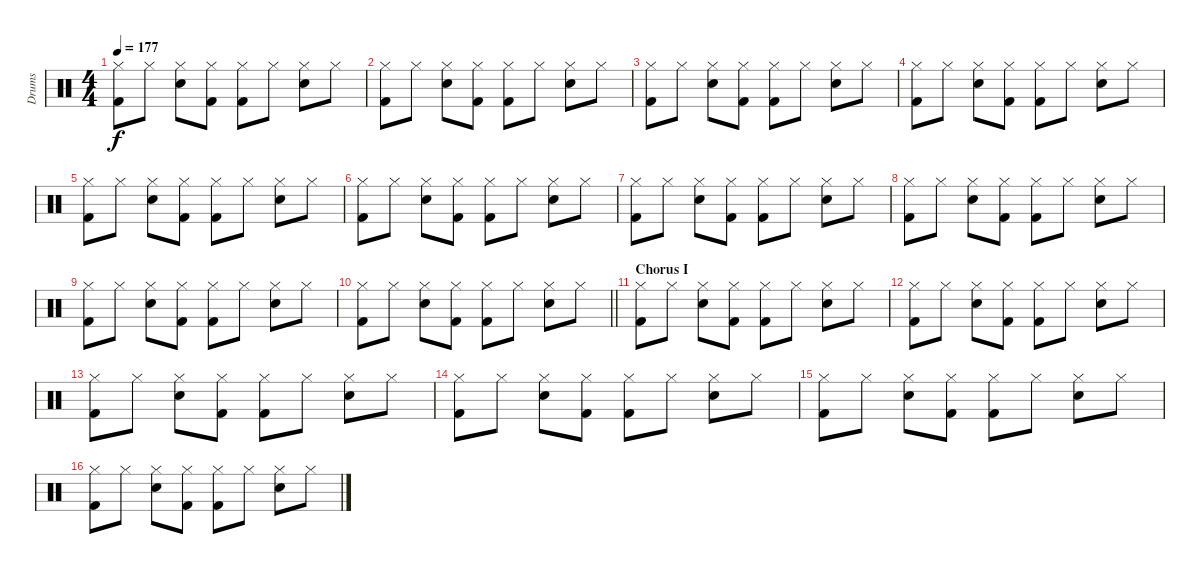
\track ("Drums" "Drums") {instrument percussion}
\staff {score}
\articulation defaults
\ts (4 4)
\tempo 177
\clef neutral
\ks c
("Hi-Hat (closed)" "Kick (hit) 2").8{dy f} "Hi-Hat (closed)".8 ("Hi-Hat (closed)" "Snare (hit) 2").8 ("Hi-Hat (closed)" "Kick (hit) 2").8 ("Hi-Hat (closed)" "Kick (hit) 2").8 "Hi-Hat (closed)".8 ("Hi-Hat (closed)" "Snare (hit) 2").8 "Hi-Hat (closed)".8 |
("Hi-Hat (closed)" "Kick (hit) 2").8 "Hi-Hat (closed)".8 ("Hi-Hat (closed)" "Snare (hit) 2").8 ("Hi-Hat (closed)" "Kick (hit) 2").8 ("Hi-Hat (closed)" "Kick (hit) 2").8 "Hi-Hat (closed)".8 ("Hi-Hat (closed)" "Snare (hit) 2").8 "Hi-Hat (closed)".8 |
("Hi-Hat (closed)" "Kick (hit) 2").8 "Hi-Hat (closed)".8 ("Hi-Hat (closed)" "Snare (hit) 2").8 ("Hi-Hat (closed)" "Kick (hit) 2").8 ("Hi-Hat (closed)" "Kick (hit) 2").8 "Hi-Hat (closed)".8 ("Hi-Hat (closed)" "Snare (hit) 2").8 "Hi-Hat (closed)".8 |
("Hi-Hat (closed)" "Kick (hit) 2").8 "Hi-Hat (closed)".8 ("Hi-Hat (closed)" "Snare (hit) 2").8 ("Hi-Hat (closed)" "Kick (hit) 2").8 ("Hi-Hat (closed)" "Kick (hit) 2").8 "Hi-Hat (closed)".8 ("Hi-Hat (closed)" "Snare (hit) 2").8 "Hi-Hat (closed)".8 |
("Hi-Hat (closed)" "Kick (hit) 2").8 "Hi-Hat (closed)".8 ("Hi-Hat (closed)" "Snare (hit) 2").8 ("Hi-Hat (closed)" "Kick (hit) 2").8 ("Hi-Hat (closed)" "Kick (hit) 2").8 "Hi-Hat (closed)".8 ("Hi-Hat (closed)" "Snare (hit) 2").8 "Hi-Hat (closed)".8 |
("Hi-Hat (closed)" "Kick (hit) 2").8 "Hi-Hat (closed)".8 ("Hi-Hat (closed)" "Snare (hit) 2").8 ("Hi-Hat (closed)" "Kick (hit) 2").8 ("Hi-Hat (closed)" "Kick (hit) 2").8 "Hi-Hat (closed)".8 ("Hi-Hat (closed)" "Snare (hit) 2").8 "Hi-Hat (closed)".8 |
("Hi-Hat (closed)" "Kick (hit) 2").8 "Hi-Hat (closed)".8 ("Hi-Hat (closed)" "Snare (hit) 2").8 ("Hi-Hat (closed)" "Kick (hit) 2").8 ("Hi-Hat (closed)" "Kick (hit) 2").8 "Hi-Hat (closed)".8 ("Hi-Hat (closed)" "Snare (hit) 2").8 "Hi-Hat (closed)".8 |
("Hi-Hat (closed)" "Kick (hit) 2").8 "Hi-Hat (closed)".8 ("Hi-Hat (closed)" "Snare (hit) 2").8 ("Hi-Hat (closed)" "Kick (hit) 2").8 ("Hi-Hat (closed)" "Kick (hit) 2").8 "Hi-Hat (closed)".8 ("Hi-Hat (closed)" "Snare (hit) 2").8 "Hi-Hat (closed)".8 |
("Hi-Hat (closed)" "Kick (hit) 2").8 "Hi-Hat (closed)".8 ("Hi-Hat (closed)" "Snare (hit) 2").8 ("Hi-Hat (closed)" "Kick (hit) 2").8 ("Hi-Hat (closed)" "Kick (hit) 2").8 "Hi-Hat (closed)".8 ("Hi-Hat (closed)" "Snare (hit) 2").8 "Hi-Hat (closed)".8 |
\barLineRight lightlight
("Hi-Hat (closed)" "Kick (hit) 2").8 "Hi-Hat (closed)".8 ("Hi-Hat (closed)" "Snare (hit) 2").8 ("Hi-Hat (closed)" "Kick (hit) 2").8 ("Hi-Hat (closed)" "Kick (hit) 2").8 "Hi-Hat (closed)".8 ("Hi-Hat (closed)" "Snare (hit) 2").8 "Hi-Hat (closed)".8 |
\section ("" "Chorus I")
("Hi-Hat (closed)" "Kick (hit) 2").8 "Hi-Hat (closed)".8 ("Hi-Hat (closed)" "Snare (hit) 2").8 ("Hi-Hat (closed)" "Kick (hit) 2").8 ("Hi-Hat (closed)" "Kick (hit) 2").8 "Hi-Hat (closed)".8 ("Hi-Hat (closed)" "Snare (hit) 2").8 "Hi-Hat (closed)".8 |
("Hi-Hat (closed)" "Kick (hit) 2").8 "Hi-Hat (closed)".8 ("Hi-Hat (closed)" "Snare (hit) 2").8 ("Hi-Hat (closed)" "Kick (hit) 2").8 ("Hi-Hat (closed)" "Kick (hit) 2").8 "Hi-Hat (closed)".8 ("Hi-Hat (closed)" "Snare (hit) 2").8 "Hi-Hat (closed)".8 |
("Hi-Hat (closed)" "Kick (hit) 2").8 "Hi-Hat (closed)".8 ("Hi-Hat (closed)" "Snare (hit) 2").8 ("Hi-Hat (closed)" "Kick (hit) 2").8 ("Hi-Hat (closed)" "Kick (hit) 2").8 "Hi-Hat (closed)".8 ("Hi-Hat (closed)" "Snare (hit) 2").8 "Hi-Hat (closed)".8 |
("Hi-Hat (closed)" "Kick (hit) 2").8 "Hi-Hat (closed)".8 ("Hi-Hat (closed)" "Snare (hit) 2").8 ("Hi-Hat (closed)" "Kick (hit) 2").8 ("Hi-Hat (closed)" "Kick (hit) 2").8 "Hi-Hat (closed)".8 ("Hi-Hat (closed)" "Snare (hit) 2").8 "Hi-Hat (closed)".8 |
("Hi-Hat (closed)" "Kick (hit) 2").8 "Hi-Hat (closed)".8 ("Hi-Hat (closed)" "Snare (hit) 2").8 ("Hi-Hat (closed)" "Kick (hit) 2").8 ("Hi-Hat (closed)" "Kick (hit) 2").8 "Hi-Hat (closed)".8 ("Hi-Hat (closed)" "Snare (hit) 2").8 "Hi-Hat (closed)".8 |
("Hi-Hat (closed)" "Kick (hit) 2").8 "Hi-Hat (closed)".8 ("Hi-Hat (closed)" "Snare (hit) 2").8 ("Hi-Hat (closed)" "Kick (hit) 2").8 ("Hi-Hat (closed)" "Kick (hit) 2").8 "Hi-Hat (closed)".8 ("Hi-Hat (closed)" "Snare (hit) 2").8 "Hi-Hat (closed)".8
